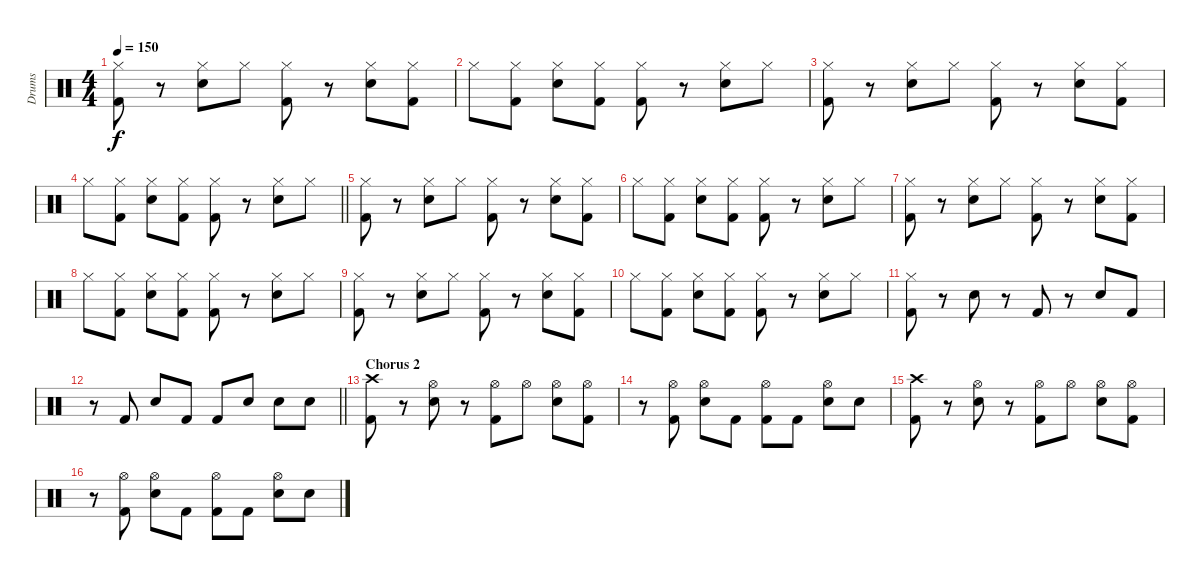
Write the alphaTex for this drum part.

\track ("Drums" "Drums") {instrument percussion}
\staff {score}
\articulation defaults
\ts (4 4)
\tempo 150
\clef neutral
\ks c
("Hi-Hat (closed)" "Kick (hit) 2").8{dy f} r.8 ("Snare (hit) 2" "Hi-Hat (closed)").8 "Hi-Hat (closed)".8 ("Hi-Hat (closed)" "Kick (hit) 2").8 r.8 ("Snare (hit) 2" "Hi-Hat (closed)").8 ("Hi-Hat (closed)" "Kick (hit) 2").8 |
"Hi-Hat (closed)".8 ("Hi-Hat (closed)" "Kick (hit) 2").8 ("Snare (hit) 2" "Hi-Hat (closed)").8 ("Hi-Hat (closed)" "Kick (hit) 2").8 ("Hi-Hat (closed)" "Kick (hit) 2").8 r.8 ("Snare (hit) 2" "Hi-Hat (closed)").8 "Hi-Hat (closed)".8 |
("Hi-Hat (closed)" "Kick (hit) 2").8 r.8 ("Snare (hit) 2" "Hi-Hat (closed)").8 "Hi-Hat (closed)".8 ("Hi-Hat (closed)" "Kick (hit) 2").8 r.8 ("Snare (hit) 2" "Hi-Hat (closed)").8 ("Hi-Hat (closed)" "Kick (hit) 2").8 |
\barLineRight lightlight "Hi-Hat (closed)".8
("Hi-Hat (closed)" "Kick (hit) 2").8 ("Snare (hit) 2" "Hi-Hat (closed)").8 ("Hi-Hat (closed)" "Kick (hit) 2").8 ("Hi-Hat (closed)" "Kick (hit) 2").8 r.8 ("Snare (hit) 2" "Hi-Hat (closed)").8 "Hi-Hat (closed)".8 |
("Hi-Hat (closed)" "Kick (hit) 2").8 r.8 ("Snare (hit) 2" "Hi-Hat (closed)").8 "Hi-Hat (closed)".8 ("Hi-Hat (closed)" "Kick (hit) 2").8 r.8 ("Snare (hit) 2" "Hi-Hat (closed)").8 ("Hi-Hat (closed)" "Kick (hit) 2").8 |
"Hi-Hat (closed)".8 ("Hi-Hat (closed)" "Kick (hit) 2").8 ("Snare (hit) 2" "Hi-Hat (closed)").8 ("Hi-Hat (closed)" "Kick (hit) 2").8 ("Hi-Hat (closed)" "Kick (hit) 2").8 r.8 ("Snare (hit) 2" "Hi-Hat (closed)").8 "Hi-Hat (closed)".8 |
("Hi-Hat (closed)" "Kick (hit) 2").8 r.8 ("Snare (hit) 2" "Hi-Hat (closed)").8 "Hi-Hat (closed)".8 ("Hi-Hat (closed)" "Kick (hit) 2").8 r.8 ("Snare (hit) 2" "Hi-Hat (closed)").8 ("Hi-Hat (closed)" "Kick (hit) 2").8 |
"Hi-Hat (closed)".8 ("Hi-Hat (closed)" "Kick (hit) 2").8 ("Snare (hit) 2" "Hi-Hat (closed)").8 ("Hi-Hat (closed)" "Kick (hit) 2").8 ("Hi-Hat (closed)" "Kick (hit) 2").8 r.8 ("Snare (hit) 2" "Hi-Hat (closed)").8 "Hi-Hat (closed)".8 |
("Hi-Hat (closed)" "Kick (hit) 2").8 r.8 ("Snare (hit) 2" "Hi-Hat (closed)").8 "Hi-Hat (closed)".8 ("Hi-Hat (closed)" "Kick (hit) 2").8 r.8 ("Snare (hit) 2" "Hi-Hat (closed)").8 ("Hi-Hat (closed)" "Kick (hit) 2").8 |
"Hi-Hat (closed)".8 ("Hi-Hat (closed)" "Kick (hit) 2").8 ("Snare (hit) 2" "Hi-Hat (closed)").8 ("Hi-Hat (closed)" "Kick (hit) 2").8 ("Hi-Hat (closed)" "Kick (hit) 2").8 r.8 ("Snare (hit) 2" "Hi-Hat (closed)").8 "Hi-Hat (closed)".8 |
("Hi-Hat (closed)" "Kick (hit) 2").8 r.8 "Snare (hit) 2".8 r.8 "Kick (hit) 2".8 r.8 "Snare (hit) 2".8 "Kick (hit) 2".8 |
\barLineRight lightlight
r.8 "Kick (hit) 2".8 "Snare (hit) 2".8 "Kick (hit) 2".8 "Kick (hit) 2".8 "Snare (hit) 2".8 "Snare (hit) 2".8 "Snare (hit) 2".8 |
\section ("" "Chorus 2")
("Crash high (hit)" "Kick (hit) 2").8 r.8 ("Snare (hit) 2" "Hi-Hat (open)").8 r.8 ("Hi-Hat (open)" "Kick (hit) 2").8 "Hi-Hat (open)".8 ("Snare (hit) 2" "Hi-Hat (open)").8 ("Hi-Hat (open)" "Kick (hit) 2").8 |
r.8 ("Hi-Hat (open)" "Kick (hit) 2").8 ("Snare (hit) 2" "Hi-Hat (open)").8 "Kick (hit) 2".8 ("Hi-Hat (open)" "Kick (hit) 2").8 "Kick (hit) 2".8 ("Snare (hit) 2" "Hi-Hat (open)").8 "Snare (hit) 2".8 |
("Crash high (hit)" "Kick (hit) 2").8 r.8 ("Snare (hit) 2" "Hi-Hat (open)").8 r.8 ("Hi-Hat (open)" "Kick (hit) 2").8 "Hi-Hat (open)".8 ("Snare (hit) 2" "Hi-Hat (open)").8 ("Hi-Hat (open)" "Kick (hit) 2").8 |
r.8 ("Hi-Hat (open)" "Kick (hit) 2").8 ("Snare (hit) 2" "Hi-Hat (open)").8 "Kick (hit) 2".8 ("Hi-Hat (open)" "Kick (hit) 2").8 "Kick (hit) 2".8 ("Snare (hit) 2" "Hi-Hat (open)").8 "Snare (hit) 2".8
